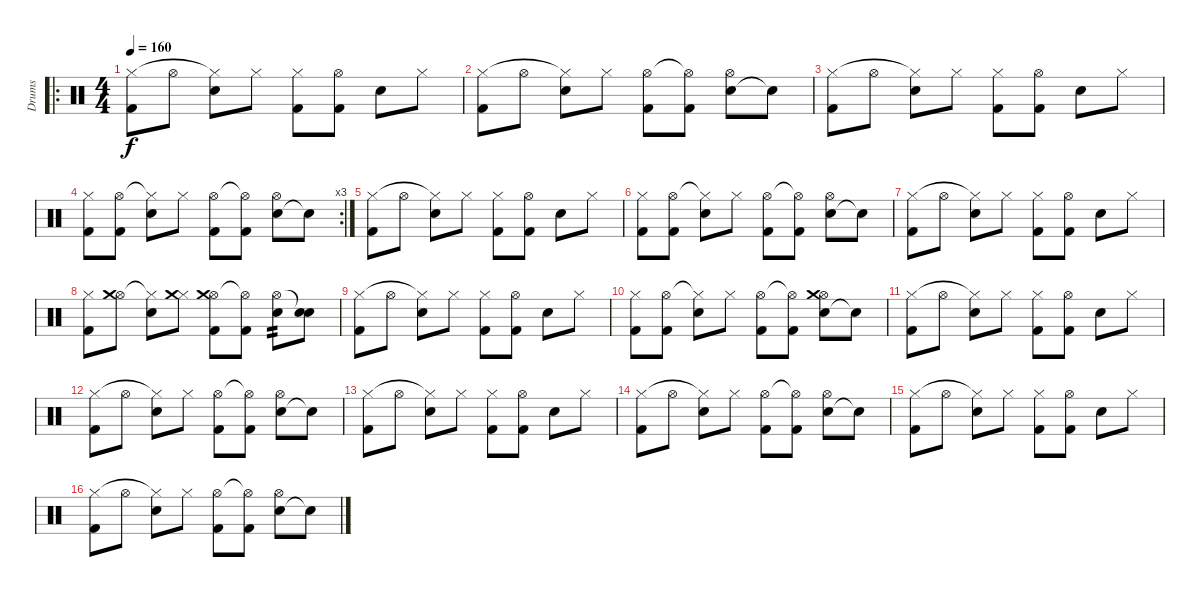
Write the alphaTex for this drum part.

\track ("Drums" "Drums") {instrument percussion}
\staff {score}
\articulation defaults
\ro
\ts (4 4)
\tempo 160
\clef neutral
\ks c
("Kick (hit) 2" "Hi-Hat (closed)").8{dy f} "Hi-Hat (open)".8 ("Snare (hit) 2" "Hi-Hat (closed)"{t}).8 "Hi-Hat (closed)".8 ("Kick (hit) 2" "Hi-Hat (closed)").8 ("Kick (hit) 2" "Hi-Hat (open)").8 "Snare (hit) 2".8 "Hi-Hat (closed)".8 |
("Kick (hit) 2" "Hi-Hat (closed)").8 "Hi-Hat (open)".8 ("Snare (hit) 2" "Hi-Hat (closed)"{t}).8 "Hi-Hat (closed)".8 ("Kick (hit) 2" "Hi-Hat (open)").8 ("Kick (hit) 2" "Hi-Hat (open)"{t}).8 ("Snare (hit) 2" "Hi-Hat (open)").8 "Snare (hit)"{t}.8 |
("Kick (hit) 2" "Hi-Hat (closed)").8 "Hi-Hat (open)".8 ("Snare (hit) 2" "Hi-Hat (closed)"{t}).8 "Hi-Hat (closed)".8 ("Kick (hit) 2" "Hi-Hat (closed)").8 ("Kick (hit) 2" "Hi-Hat (open)").8 "Snare (hit) 2".8 "Hi-Hat (closed)".8 |
\rc 3
("Kick (hit) 2" "Hi-Hat (closed)").8 ("Kick (hit) 2" "Hi-Hat (open)").8 ("Snare (hit) 2" "Hi-Hat (closed)"{t}).8 "Hi-Hat (closed)".8 ("Kick (hit) 2" "Hi-Hat (open)").8 ("Kick (hit) 2" "Hi-Hat (open)"{t}).8 ("Snare (hit) 2" "Hi-Hat (open)").8 "Snare (hit)"{t}.8 |
("Kick (hit) 2" "Hi-Hat (closed)").8 "Hi-Hat (open)".8 ("Snare (hit) 2" "Hi-Hat (closed)"{t}).8 "Hi-Hat (closed)".8 ("Kick (hit) 2" "Hi-Hat (closed)").8 ("Kick (hit) 2" "Hi-Hat (open)").8 "Snare (hit) 2".8 "Hi-Hat (closed)".8 |
("Kick (hit) 2" "Hi-Hat (closed)").8 ("Kick (hit) 2" "Hi-Hat (open)").8 ("Snare (hit) 2" "Hi-Hat (closed)"{t}).8 "Hi-Hat (closed)".8 ("Kick (hit) 2" "Hi-Hat (open)").8 ("Kick (hit) 2" "Hi-Hat (open)"{t}).8 ("Snare (hit) 2" "Hi-Hat (open)").8 "Snare (hit)"{t}.8 |
("Kick (hit) 2" "Hi-Hat (closed)").8 "Hi-Hat (open)".8 ("Snare (hit) 2" "Hi-Hat (closed)"{t}).8 "Hi-Hat (closed)".8 ("Kick (hit) 2" "Hi-Hat (closed)").8 ("Kick (hit) 2" "Hi-Hat (open)").8 "Snare (hit) 2".8 "Hi-Hat (closed)".8 |
("Kick (hit) 2" "Hi-Hat (closed)").8 ("Hi-Hat (open)" "Crash medium (hit)").8 ("Snare (hit) 2" "Hi-Hat (closed)"{t}).8 ("Hi-Hat (closed)" "Crash medium (hit)").8 ("Kick (hit) 2" "Hi-Hat (open)" "Crash medium (hit)").8 ("Kick (hit) 2" "Hi-Hat (open)"{t}).8 ("Snare (hit) 2" "Hi-Hat (open)").8{tp 2} ("Snare (hit) 2" "Snare (hit)"{t}).8 |
("Kick (hit) 2" "Hi-Hat (closed)").8 "Hi-Hat (open)".8 ("Snare (hit) 2" "Hi-Hat (closed)"{t}).8 "Hi-Hat (closed)".8 ("Kick (hit) 2" "Hi-Hat (closed)").8 ("Kick (hit) 2" "Hi-Hat (open)").8 "Snare (hit) 2".8 "Hi-Hat (closed)".8 |
("Kick (hit) 2" "Hi-Hat (closed)").8 ("Kick (hit) 2" "Hi-Hat (open)").8 ("Snare (hit) 2" "Hi-Hat (closed)"{t}).8 "Hi-Hat (closed)".8 ("Kick (hit) 2" "Hi-Hat (open)").8 ("Kick (hit) 2" "Hi-Hat (open)"{t}).8 ("Snare (hit) 2" "Hi-Hat (open)" "Crash medium (hit)").8 "Snare (hit)"{t}.8 |
("Kick (hit) 2" "Hi-Hat (closed)").8 "Hi-Hat (open)".8 ("Snare (hit) 2" "Hi-Hat (closed)"{t}).8 "Hi-Hat (closed)".8 ("Kick (hit) 2" "Hi-Hat (closed)").8 ("Kick (hit) 2" "Hi-Hat (open)").8 "Snare (hit) 2".8 "Hi-Hat (closed)".8 |
("Kick (hit) 2" "Hi-Hat (closed)").8 "Hi-Hat (open)".8 ("Snare (hit) 2" "Hi-Hat (closed)"{t}).8 "Hi-Hat (closed)".8 ("Kick (hit) 2" "Hi-Hat (open)").8 ("Kick (hit) 2" "Hi-Hat (open)"{t}).8 ("Snare (hit) 2" "Hi-Hat (open)").8 "Snare (hit)"{t}.8 |
("Kick (hit) 2" "Hi-Hat (closed)").8 "Hi-Hat (open)".8 ("Snare (hit) 2" "Hi-Hat (closed)"{t}).8 "Hi-Hat (closed)".8 ("Kick (hit) 2" "Hi-Hat (closed)").8 ("Kick (hit) 2" "Hi-Hat (open)").8 "Snare (hit) 2".8 "Hi-Hat (closed)".8 |
("Kick (hit) 2" "Hi-Hat (closed)").8 "Hi-Hat (open)".8 ("Snare (hit) 2" "Hi-Hat (closed)"{t}).8 "Hi-Hat (closed)".8 ("Kick (hit) 2" "Hi-Hat (open)").8 ("Kick (hit) 2" "Hi-Hat (open)"{t}).8 ("Snare (hit) 2" "Hi-Hat (open)").8 "Snare (hit)"{t}.8 |
("Kick (hit) 2" "Hi-Hat (closed)").8 "Hi-Hat (open)".8 ("Snare (hit) 2" "Hi-Hat (closed)"{t}).8 "Hi-Hat (closed)".8 ("Kick (hit) 2" "Hi-Hat (closed)").8 ("Kick (hit) 2" "Hi-Hat (open)").8 "Snare (hit) 2".8 "Hi-Hat (closed)".8 |
("Kick (hit) 2" "Hi-Hat (closed)").8 "Hi-Hat (open)".8 ("Snare (hit) 2" "Hi-Hat (closed)"{t}).8 "Hi-Hat (closed)".8 ("Kick (hit) 2" "Hi-Hat (open)").8 ("Kick (hit) 2" "Hi-Hat (open)"{t}).8 ("Snare (hit) 2" "Hi-Hat (open)").8 "Snare (hit)"{t}.8
